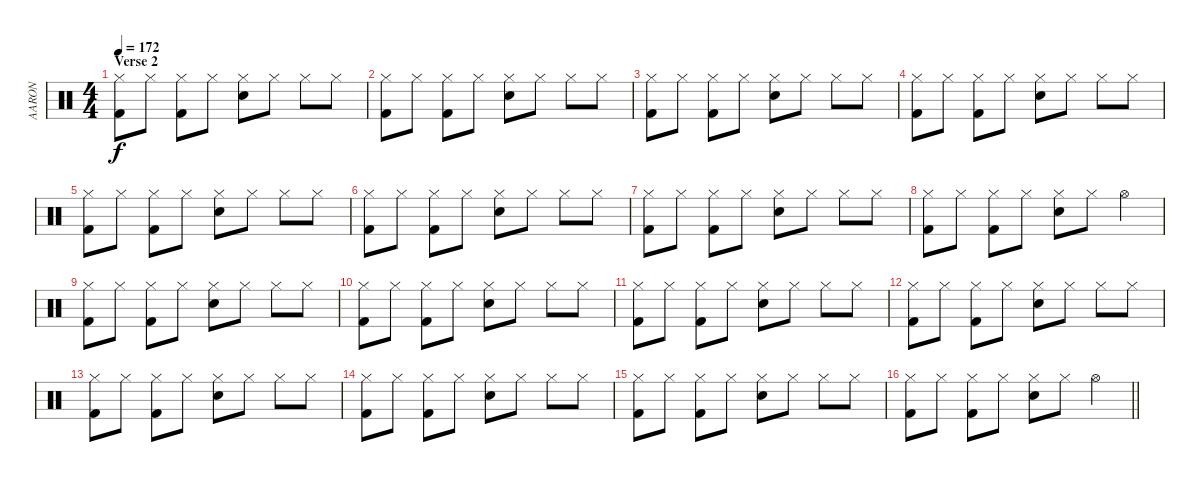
\track ("AARON" "AARON") {instrument percussion}
\staff {score}
\articulation defaults
\ts (4 4)
\section ("" "Verse 2")
\tempo 172
\clef neutral
\ks c
("Hi-Hat (closed)" "Kick (hit) 2").8{dy f} "Hi-Hat (closed)".8 ("Hi-Hat (closed)" "Kick (hit) 2").8 "Hi-Hat (closed)".8 ("Hi-Hat (closed)" "Electric Snare (hit)").8 "Hi-Hat (closed)".8 "Hi-Hat (closed)".8 "Hi-Hat (closed)".8 |
("Hi-Hat (closed)" "Kick (hit) 2").8 "Hi-Hat (closed)".8 ("Hi-Hat (closed)" "Kick (hit) 2").8 "Hi-Hat (closed)".8 ("Hi-Hat (closed)" "Electric Snare (hit)").8 "Hi-Hat (closed)".8 "Hi-Hat (closed)".8 "Hi-Hat (closed)".8 |
("Hi-Hat (closed)" "Kick (hit) 2").8 "Hi-Hat (closed)".8 ("Hi-Hat (closed)" "Kick (hit) 2").8 "Hi-Hat (closed)".8 ("Hi-Hat (closed)" "Electric Snare (hit)").8 "Hi-Hat (closed)".8 "Hi-Hat (closed)".8 "Hi-Hat (closed)".8 |
("Hi-Hat (closed)" "Kick (hit) 2").8 "Hi-Hat (closed)".8 ("Hi-Hat (closed)" "Kick (hit) 2").8 "Hi-Hat (closed)".8 ("Hi-Hat (closed)" "Electric Snare (hit)").8 "Hi-Hat (closed)".8 "Hi-Hat (closed)".8 "Hi-Hat (closed)".8 |
("Hi-Hat (closed)" "Kick (hit) 2").8 "Hi-Hat (closed)".8 ("Hi-Hat (closed)" "Kick (hit) 2").8 "Hi-Hat (closed)".8 ("Hi-Hat (closed)" "Electric Snare (hit)").8 "Hi-Hat (closed)".8 "Hi-Hat (closed)".8 "Hi-Hat (closed)".8 |
("Hi-Hat (closed)" "Kick (hit) 2").8 "Hi-Hat (closed)".8 ("Hi-Hat (closed)" "Kick (hit) 2").8 "Hi-Hat (closed)".8 ("Hi-Hat (closed)" "Electric Snare (hit)").8 "Hi-Hat (closed)".8 "Hi-Hat (closed)".8 "Hi-Hat (closed)".8 |
("Hi-Hat (closed)" "Kick (hit) 2").8 "Hi-Hat (closed)".8 ("Hi-Hat (closed)" "Kick (hit) 2").8 "Hi-Hat (closed)".8 ("Hi-Hat (closed)" "Electric Snare (hit)").8 "Hi-Hat (closed)".8 "Hi-Hat (closed)".8 "Hi-Hat (closed)".8 |
("Hi-Hat (closed)" "Kick (hit) 2").8 "Hi-Hat (closed)".8 ("Hi-Hat (closed)" "Kick (hit) 2").8 "Hi-Hat (closed)".8 ("Hi-Hat (closed)" "Electric Snare (hit)").8 "Hi-Hat (closed)".8 "Hi-Hat (open)".4 |
("Hi-Hat (closed)" "Kick (hit) 2").8 "Hi-Hat (closed)".8 ("Hi-Hat (closed)" "Kick (hit) 2").8 "Hi-Hat (closed)".8 ("Hi-Hat (closed)" "Electric Snare (hit)").8 "Hi-Hat (closed)".8 "Hi-Hat (closed)".8 "Hi-Hat (closed)".8 |
("Hi-Hat (closed)" "Kick (hit) 2").8 "Hi-Hat (closed)".8 ("Hi-Hat (closed)" "Kick (hit) 2").8 "Hi-Hat (closed)".8 ("Hi-Hat (closed)" "Electric Snare (hit)").8 "Hi-Hat (closed)".8 "Hi-Hat (closed)".8 "Hi-Hat (closed)".8 |
("Hi-Hat (closed)" "Kick (hit) 2").8 "Hi-Hat (closed)".8 ("Hi-Hat (closed)" "Kick (hit) 2").8 "Hi-Hat (closed)".8 ("Hi-Hat (closed)" "Electric Snare (hit)").8 "Hi-Hat (closed)".8 "Hi-Hat (closed)".8 "Hi-Hat (closed)".8 |
("Hi-Hat (closed)" "Kick (hit) 2").8 "Hi-Hat (closed)".8 ("Hi-Hat (closed)" "Kick (hit) 2").8 "Hi-Hat (closed)".8 ("Hi-Hat (closed)" "Electric Snare (hit)").8 "Hi-Hat (closed)".8 "Hi-Hat (closed)".8 "Hi-Hat (closed)".8 |
("Hi-Hat (closed)" "Kick (hit) 2").8 "Hi-Hat (closed)".8 ("Hi-Hat (closed)" "Kick (hit) 2").8 "Hi-Hat (closed)".8 ("Hi-Hat (closed)" "Electric Snare (hit)").8 "Hi-Hat (closed)".8 "Hi-Hat (closed)".8 "Hi-Hat (closed)".8 |
("Hi-Hat (closed)" "Kick (hit) 2").8 "Hi-Hat (closed)".8 ("Hi-Hat (closed)" "Kick (hit) 2").8 "Hi-Hat (closed)".8 ("Hi-Hat (closed)" "Electric Snare (hit)").8 "Hi-Hat (closed)".8 "Hi-Hat (closed)".8 "Hi-Hat (closed)".8 |
("Hi-Hat (closed)" "Kick (hit) 2").8 "Hi-Hat (closed)".8 ("Hi-Hat (closed)" "Kick (hit) 2").8 "Hi-Hat (closed)".8 ("Hi-Hat (closed)" "Electric Snare (hit)").8 "Hi-Hat (closed)".8 "Hi-Hat (closed)".8 "Hi-Hat (closed)".8 |
\barLineRight lightlight
("Hi-Hat (closed)" "Kick (hit) 2").8 "Hi-Hat (closed)".8 ("Hi-Hat (closed)" "Kick (hit) 2").8 "Hi-Hat (closed)".8 ("Hi-Hat (closed)" "Electric Snare (hit)").8 "Hi-Hat (closed)".8 "Hi-Hat (open)".4
